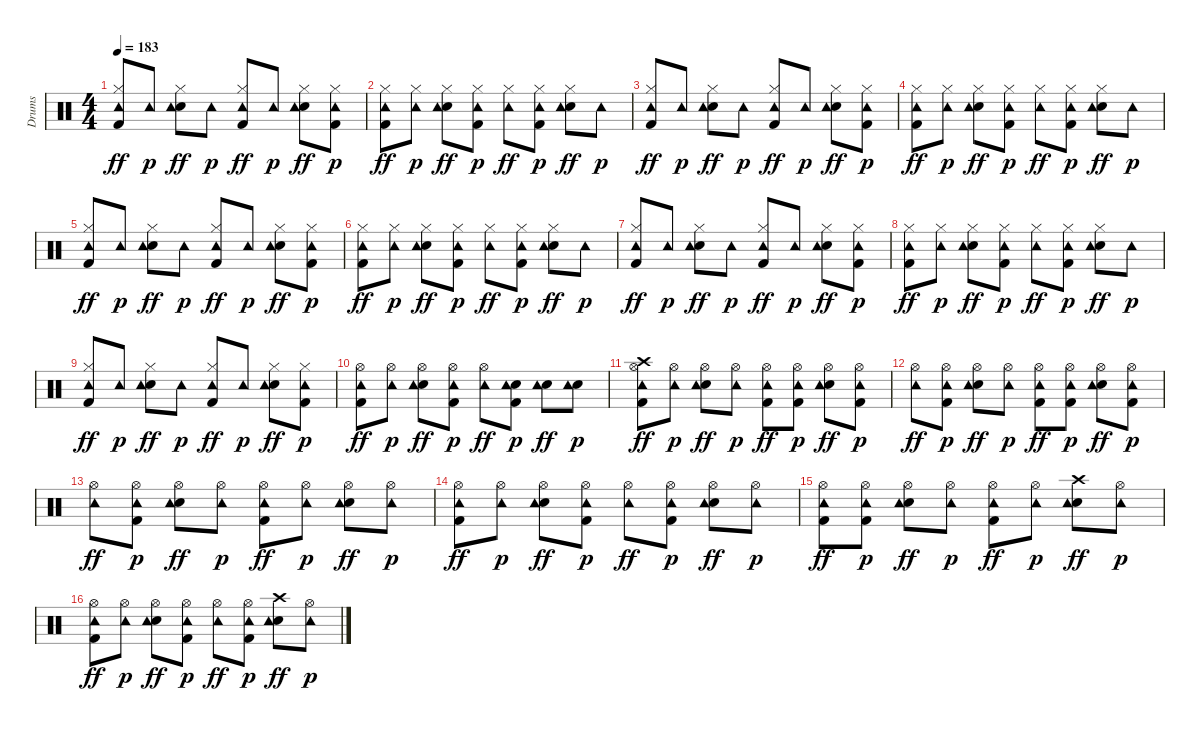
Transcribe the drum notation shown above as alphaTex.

\track ("Drums" "Drums") {instrument percussion}
\staff {score}
\articulation defaults
\ts (4 4)
\tempo 183
\clef neutral
\ks c
("Kick (hit) 2" "Hi-Hat (closed)" "Tambourine (hit)").8{dy ff} "Tambourine (hit)".8{dy p} ("Snare (hit) 2" "Hi-Hat (closed)" "Tambourine (hit)").8{dy ff} "Tambourine (hit)".8{dy p} ("Kick (hit) 2" "Hi-Hat (closed)" "Tambourine (hit)").8{dy ff} "Tambourine (hit)".8{dy p} ("Snare (hit) 2" "Hi-Hat (closed)" "Tambourine (hit)").8{dy ff} ("Kick (hit) 2" "Hi-Hat (closed)" "Tambourine (hit)").8{dy p} |
("Kick (hit) 2" "Hi-Hat (closed)" "Tambourine (hit)").8{dy ff} ("Hi-Hat (closed)" "Tambourine (hit)").8{dy p} ("Snare (hit) 2" "Hi-Hat (closed)" "Tambourine (hit)").8{dy ff} ("Kick (hit) 2" "Hi-Hat (closed)" "Tambourine (hit)").8{dy p} ("Hi-Hat (closed)" "Tambourine (hit)").8{dy ff} ("Kick (hit) 2" "Hi-Hat (closed)" "Tambourine (hit)").8{dy p} ("Snare (hit) 2" "Hi-Hat (closed)" "Tambourine (hit)").8{dy ff} "Tambourine (hit)".8{dy p} |
("Kick (hit) 2" "Hi-Hat (closed)" "Tambourine (hit)").8{dy ff} "Tambourine (hit)".8{dy p} ("Snare (hit) 2" "Hi-Hat (closed)" "Tambourine (hit)").8{dy ff} "Tambourine (hit)".8{dy p} ("Kick (hit) 2" "Hi-Hat (closed)" "Tambourine (hit)").8{dy ff} "Tambourine (hit)".8{dy p} ("Snare (hit) 2" "Hi-Hat (closed)" "Tambourine (hit)").8{dy ff} ("Kick (hit) 2" "Hi-Hat (closed)" "Tambourine (hit)").8{dy p} |
("Kick (hit) 2" "Hi-Hat (closed)" "Tambourine (hit)").8{dy ff} ("Hi-Hat (closed)" "Tambourine (hit)").8{dy p} ("Snare (hit) 2" "Hi-Hat (closed)" "Tambourine (hit)").8{dy ff} ("Kick (hit) 2" "Hi-Hat (closed)" "Tambourine (hit)").8{dy p} ("Hi-Hat (closed)" "Tambourine (hit)").8{dy ff} ("Kick (hit) 2" "Hi-Hat (closed)" "Tambourine (hit)").8{dy p} ("Snare (hit) 2" "Hi-Hat (closed)" "Tambourine (hit)").8{dy ff} "Tambourine (hit)".8{dy p} |
("Kick (hit) 2" "Hi-Hat (closed)" "Tambourine (hit)").8{dy ff} "Tambourine (hit)".8{dy p} ("Snare (hit) 2" "Hi-Hat (closed)" "Tambourine (hit)").8{dy ff} "Tambourine (hit)".8{dy p} ("Kick (hit) 2" "Hi-Hat (closed)" "Tambourine (hit)").8{dy ff} "Tambourine (hit)".8{dy p} ("Snare (hit) 2" "Hi-Hat (closed)" "Tambourine (hit)").8{dy ff} ("Kick (hit) 2" "Hi-Hat (closed)" "Tambourine (hit)").8{dy p} |
("Kick (hit) 2" "Hi-Hat (closed)" "Tambourine (hit)").8{dy ff} ("Hi-Hat (closed)" "Tambourine (hit)").8{dy p} ("Snare (hit) 2" "Hi-Hat (closed)" "Tambourine (hit)").8{dy ff} ("Kick (hit) 2" "Hi-Hat (closed)" "Tambourine (hit)").8{dy p} ("Hi-Hat (closed)" "Tambourine (hit)").8{dy ff} ("Kick (hit) 2" "Hi-Hat (closed)" "Tambourine (hit)").8{dy p} ("Snare (hit) 2" "Hi-Hat (closed)" "Tambourine (hit)").8{dy ff} "Tambourine (hit)".8{dy p} |
("Kick (hit) 2" "Hi-Hat (closed)" "Tambourine (hit)").8{dy ff} "Tambourine (hit)".8{dy p} ("Snare (hit) 2" "Hi-Hat (closed)" "Tambourine (hit)").8{dy ff} "Tambourine (hit)".8{dy p} ("Kick (hit) 2" "Hi-Hat (closed)" "Tambourine (hit)").8{dy ff} "Tambourine (hit)".8{dy p} ("Snare (hit) 2" "Hi-Hat (closed)" "Tambourine (hit)").8{dy ff} ("Kick (hit) 2" "Hi-Hat (closed)" "Tambourine (hit)").8{dy p} |
("Kick (hit) 2" "Hi-Hat (closed)" "Tambourine (hit)").8{dy ff} ("Hi-Hat (closed)" "Tambourine (hit)").8{dy p} ("Snare (hit) 2" "Hi-Hat (closed)" "Tambourine (hit)").8{dy ff} ("Kick (hit) 2" "Hi-Hat (closed)" "Tambourine (hit)").8{dy p} ("Hi-Hat (closed)" "Tambourine (hit)").8{dy ff} ("Kick (hit) 2" "Hi-Hat (closed)" "Tambourine (hit)").8{dy p} ("Snare (hit) 2" "Hi-Hat (closed)" "Tambourine (hit)").8{dy ff} "Tambourine (hit)".8{dy p} |
("Kick (hit) 2" "Hi-Hat (closed)" "Tambourine (hit)").8{dy ff} "Tambourine (hit)".8{dy p} ("Snare (hit) 2" "Hi-Hat (closed)" "Tambourine (hit)").8{dy ff} "Tambourine (hit)".8{dy p} ("Kick (hit) 2" "Hi-Hat (closed)" "Tambourine (hit)").8{dy ff} "Tambourine (hit)".8{dy p} ("Snare (hit) 2" "Hi-Hat (closed)" "Tambourine (hit)").8{dy ff} ("Kick (hit) 2" "Hi-Hat (closed)" "Tambourine (hit)").8{dy p} |
("Kick (hit) 2" "Hi-Hat (open)" "Tambourine (hit)").8{dy ff} ("Hi-Hat (open)" "Tambourine (hit)").8{dy p} ("Snare (hit) 2" "Hi-Hat (open)" "Tambourine (hit)").8{dy ff} ("Kick (hit) 2" "Hi-Hat (open)" "Tambourine (hit)").8{dy p} ("Hi-Hat (open)" "Tambourine (hit)").8{dy ff} ("Kick (hit) 2" "Snare (hit) 2" "Tambourine (hit)").8{dy p} ("Snare (hit) 2" "Tambourine (hit)").8{dy ff} ("Snare (hit) 2" "Tambourine (hit)").8{dy p} |
("Kick (hit) 2" "Hi-Hat (open)" "Crash high (hit)" "Tambourine (hit)").8{dy ff} ("Hi-Hat (open)" "Tambourine (hit)").8{dy p} ("Snare (hit) 2" "Hi-Hat (open)" "Tambourine (hit)").8{dy ff} ("Hi-Hat (open)" "Tambourine (hit)").8{dy p} ("Kick (hit) 2" "Hi-Hat (open)" "Tambourine (hit)").8{dy ff} ("Kick (hit) 2" "Hi-Hat (open)" "Tambourine (hit)").8{dy p} ("Snare (hit) 2" "Hi-Hat (open)" "Tambourine (hit)").8{dy ff} ("Kick (hit) 2" "Hi-Hat (open)" "Tambourine (hit)").8{dy p} |
("Hi-Hat (open)" "Tambourine (hit)").8{dy ff} ("Kick (hit) 2" "Hi-Hat (open)" "Tambourine (hit)").8{dy p} ("Snare (hit) 2" "Hi-Hat (open)" "Tambourine (hit)").8{dy ff} ("Hi-Hat (open)" "Tambourine (hit)").8{dy p} ("Kick (hit) 2" "Hi-Hat (open)" "Tambourine (hit)").8{dy ff} ("Kick (hit) 2" "Hi-Hat (open)" "Tambourine (hit)").8{dy p} ("Snare (hit) 2" "Hi-Hat (open)" "Tambourine (hit)").8{dy ff} ("Kick (hit) 2" "Hi-Hat (open)" "Tambourine (hit)").8{dy p} |
("Hi-Hat (open)" "Tambourine (hit)").8{dy ff} ("Kick (hit) 2" "Hi-Hat (open)" "Tambourine (hit)").8{dy p} ("Snare (hit) 2" "Hi-Hat (open)" "Tambourine (hit)").8{dy ff} ("Hi-Hat (open)" "Tambourine (hit)").8{dy p} ("Kick (hit) 2" "Hi-Hat (open)" "Tambourine (hit)").8{dy ff} ("Hi-Hat (open)" "Tambourine (hit)").8{dy p} ("Snare (hit) 2" "Hi-Hat (open)" "Tambourine (hit)").8{dy ff} ("Hi-Hat (open)" "Tambourine (hit)").8{dy p} |
("Kick (hit) 2" "Hi-Hat (open)" "Tambourine (hit)").8{dy ff} ("Hi-Hat (open)" "Tambourine (hit)").8{dy p} ("Snare (hit) 2" "Hi-Hat (open)" "Tambourine (hit)").8{dy ff} ("Kick (hit) 2" "Hi-Hat (open)" "Tambourine (hit)").8{dy p} ("Hi-Hat (open)" "Tambourine (hit)").8{dy ff} ("Kick (hit) 2" "Hi-Hat (open)" "Tambourine (hit)").8{dy p} ("Snare (hit) 2" "Hi-Hat (open)" "Tambourine (hit)").8{dy ff} ("Hi-Hat (open)" "Tambourine (hit)").8{dy p} |
("Kick (hit) 2" "Hi-Hat (open)" "Tambourine (hit)").8{dy ff} ("Kick (hit) 2" "Hi-Hat (open)" "Tambourine (hit)").8{dy p} ("Snare (hit) 2" "Hi-Hat (open)" "Tambourine (hit)").8{dy ff} ("Hi-Hat (open)" "Tambourine (hit)").8{dy p} ("Kick (hit) 2" "Hi-Hat (open)" "Tambourine (hit)").8{dy ff} ("Hi-Hat (open)" "Tambourine (hit)").8{dy p} ("Snare (hit) 2" "Crash high (hit)" "Tambourine (hit)").8{dy ff} ("Hi-Hat (open)" "Tambourine (hit)").8{dy p} |
("Kick (hit) 2" "Hi-Hat (open)" "Tambourine (hit)").8{dy ff} ("Hi-Hat (open)" "Tambourine (hit)").8{dy p} ("Snare (hit) 2" "Hi-Hat (open)" "Tambourine (hit)").8{dy ff} ("Kick (hit) 2" "Hi-Hat (open)" "Tambourine (hit)").8{dy p} ("Hi-Hat (open)" "Tambourine (hit)").8{dy ff} ("Kick (hit) 2" "Hi-Hat (open)" "Tambourine (hit)").8{dy p} ("Snare (hit) 2" "Crash high (hit)" "Tambourine (hit)").8{dy ff} ("Hi-Hat (open)" "Tambourine (hit)").8{dy p}
